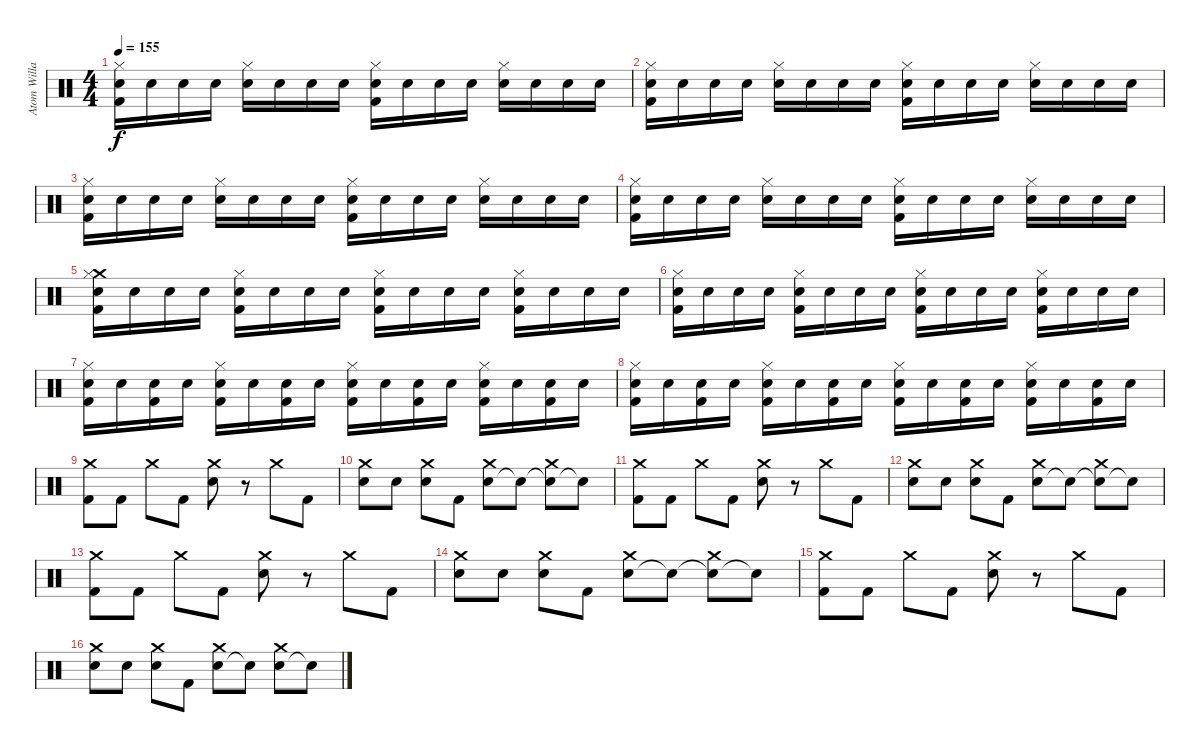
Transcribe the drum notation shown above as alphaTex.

\track ("Atom Willard Drums" "Atom Willa") {instrument percussion}
\staff {score}
\articulation defaults
\ts (4 4)
\tempo 155
\clef neutral
\ks c
("Electric Snare (hit)" "Kick (hit) 2" "Hi-Hat (closed)").16{dy f} "Electric Snare (hit)".16 "Electric Snare (hit)".16 "Electric Snare (hit)".16 ("Electric Snare (hit)" "Hi-Hat (closed)").16 "Electric Snare (hit)".16 "Electric Snare (hit)".16 "Electric Snare (hit)".16 ("Electric Snare (hit)" "Kick (hit) 2" "Hi-Hat (closed)").16 "Electric Snare (hit)".16 "Electric Snare (hit)".16 "Electric Snare (hit)".16 ("Electric Snare (hit)" "Hi-Hat (closed)").16 "Electric Snare (hit)".16 "Electric Snare (hit)".16 "Electric Snare (hit)".16 |
("Electric Snare (hit)" "Kick (hit) 2" "Hi-Hat (closed)").16 "Electric Snare (hit)".16 "Electric Snare (hit)".16 "Electric Snare (hit)".16 ("Electric Snare (hit)" "Hi-Hat (closed)").16 "Electric Snare (hit)".16 "Electric Snare (hit)".16 "Electric Snare (hit)".16 ("Electric Snare (hit)" "Kick (hit) 2" "Hi-Hat (closed)").16 "Electric Snare (hit)".16 "Electric Snare (hit)".16 "Electric Snare (hit)".16 ("Electric Snare (hit)" "Hi-Hat (closed)").16 "Electric Snare (hit)".16 "Electric Snare (hit)".16 "Electric Snare (hit)".16 |
("Electric Snare (hit)" "Kick (hit) 2" "Hi-Hat (closed)").16 "Electric Snare (hit)".16 "Electric Snare (hit)".16 "Electric Snare (hit)".16 ("Electric Snare (hit)" "Hi-Hat (closed)").16 "Electric Snare (hit)".16 "Electric Snare (hit)".16 "Electric Snare (hit)".16 ("Electric Snare (hit)" "Kick (hit) 2" "Hi-Hat (closed)").16 "Electric Snare (hit)".16 "Electric Snare (hit)".16 "Electric Snare (hit)".16 ("Electric Snare (hit)" "Hi-Hat (closed)").16 "Electric Snare (hit)".16 "Electric Snare (hit)".16 "Electric Snare (hit)".16 |
("Electric Snare (hit)" "Kick (hit) 2" "Hi-Hat (closed)").16 "Electric Snare (hit)".16 "Electric Snare (hit)".16 "Electric Snare (hit)".16 ("Electric Snare (hit)" "Hi-Hat (closed)").16 "Electric Snare (hit)".16 "Electric Snare (hit)".16 "Electric Snare (hit)".16 ("Electric Snare (hit)" "Kick (hit) 2" "Hi-Hat (closed)").16 "Electric Snare (hit)".16 "Electric Snare (hit)".16 "Electric Snare (hit)".16 ("Electric Snare (hit)" "Hi-Hat (closed)").16 "Electric Snare (hit)".16 "Electric Snare (hit)".16 "Electric Snare (hit)".16 |
("Electric Snare (hit)" "Kick (hit) 2" "Crash medium (hit)" "Hi-Hat (closed)").16 "Electric Snare (hit)".16 "Electric Snare (hit)".16 "Electric Snare (hit)".16 ("Electric Snare (hit)" "Kick (hit) 2" "Hi-Hat (closed)").16 "Electric Snare (hit)".16 "Electric Snare (hit)".16 "Electric Snare (hit)".16 ("Electric Snare (hit)" "Kick (hit) 2" "Hi-Hat (closed)").16 "Electric Snare (hit)".16 "Electric Snare (hit)".16 "Electric Snare (hit)".16 ("Electric Snare (hit)" "Kick (hit) 2" "Hi-Hat (closed)").16 "Electric Snare (hit)".16 "Electric Snare (hit)".16 "Electric Snare (hit)".16 |
("Electric Snare (hit)" "Kick (hit) 2" "Hi-Hat (closed)").16 "Electric Snare (hit)".16 "Electric Snare (hit)".16 "Electric Snare (hit)".16 ("Electric Snare (hit)" "Kick (hit) 2" "Hi-Hat (closed)").16 "Electric Snare (hit)".16 "Electric Snare (hit)".16 "Electric Snare (hit)".16 ("Electric Snare (hit)" "Kick (hit) 2" "Hi-Hat (closed)").16 "Electric Snare (hit)".16 "Electric Snare (hit)".16 "Electric Snare (hit)".16 ("Electric Snare (hit)" "Kick (hit) 2" "Hi-Hat (closed)").16 "Electric Snare (hit)".16 "Electric Snare (hit)".16 "Electric Snare (hit)".16 |
("Electric Snare (hit)" "Kick (hit) 2" "Hi-Hat (closed)").16 "Electric Snare (hit)".16 ("Electric Snare (hit)" "Kick (hit) 2").16 "Electric Snare (hit)".16 ("Electric Snare (hit)" "Kick (hit) 2" "Hi-Hat (closed)").16 "Electric Snare (hit)".16 ("Electric Snare (hit)" "Kick (hit) 2").16 "Electric Snare (hit)".16 ("Electric Snare (hit)" "Kick (hit) 2" "Hi-Hat (closed)").16 "Electric Snare (hit)".16 ("Electric Snare (hit)" "Kick (hit) 2").16 "Electric Snare (hit)".16 ("Electric Snare (hit)" "Kick (hit) 2" "Hi-Hat (closed)").16 "Electric Snare (hit)".16 ("Electric Snare (hit)" "Kick (hit) 2").16 "Electric Snare (hit)".16 |
("Electric Snare (hit)" "Kick (hit) 2" "Hi-Hat (closed)").16 "Electric Snare (hit)".16 ("Electric Snare (hit)" "Kick (hit) 2").16 "Electric Snare (hit)".16 ("Electric Snare (hit)" "Kick (hit) 2" "Hi-Hat (closed)").16 "Electric Snare (hit)".16 ("Electric Snare (hit)" "Kick (hit) 2").16 "Electric Snare (hit)".16 ("Electric Snare (hit)" "Kick (hit) 2" "Hi-Hat (closed)").16 "Electric Snare (hit)".16 ("Electric Snare (hit)" "Kick (hit) 2").16 "Electric Snare (hit)".16 ("Electric Snare (hit)" "Kick (hit) 2" "Hi-Hat (closed)").16 "Electric Snare (hit)".16 ("Electric Snare (hit)" "Kick (hit) 2").16 "Electric Snare (hit)".16 |
("Kick (hit) 2" "Crash medium (hit)").8 "Kick (hit) 2".8 "Crash medium (hit)".8 "Kick (hit) 2".8 ("Electric Snare (hit)" "Crash medium (hit)").8 r.8 "Crash medium (hit)".8 "Kick (hit) 2".8 |
("Snare (hit)" "Crash medium (hit)").8 "Electric Snare (hit)".8 ("Snare (hit)" "Crash medium (hit)").8 "Kick (hit) 2".8 ("Electric Snare (hit)" "Crash medium (hit)").8 "Snare (hit)"{t}.8 ("Snare (hit)"{t} "Crash medium (hit)").8 "Snare (hit)"{t}.8 |
("Kick (hit) 2" "Crash medium (hit)").8 "Kick (hit) 2".8 "Crash medium (hit)".8 "Kick (hit) 2".8 ("Electric Snare (hit)" "Crash medium (hit)").8 r.8 "Crash medium (hit)".8 "Kick (hit) 2".8 |
("Snare (hit)" "Crash medium (hit)").8 "Electric Snare (hit)".8 ("Snare (hit)" "Crash medium (hit)").8 "Kick (hit) 2".8 ("Electric Snare (hit)" "Crash medium (hit)").8 "Snare (hit)"{t}.8 ("Snare (hit)"{t} "Crash medium (hit)").8 "Snare (hit)"{t}.8 |
("Kick (hit) 2" "Crash medium (hit)").8 "Kick (hit) 2".8 "Crash medium (hit)".8 "Kick (hit) 2".8 ("Electric Snare (hit)" "Crash medium (hit)").8 r.8 "Crash medium (hit)".8 "Kick (hit) 2".8 |
("Snare (hit)" "Crash medium (hit)").8 "Electric Snare (hit)".8 ("Snare (hit)" "Crash medium (hit)").8 "Kick (hit) 2".8 ("Electric Snare (hit)" "Crash medium (hit)").8 "Snare (hit)"{t}.8 ("Snare (hit)"{t} "Crash medium (hit)").8 "Snare (hit)"{t}.8 |
("Kick (hit) 2" "Crash medium (hit)").8 "Kick (hit) 2".8 "Crash medium (hit)".8 "Kick (hit) 2".8 ("Electric Snare (hit)" "Crash medium (hit)").8 r.8 "Crash medium (hit)".8 "Kick (hit) 2".8 |
("Snare (hit)" "Crash medium (hit)").8 "Electric Snare (hit)".8 ("Snare (hit)" "Crash medium (hit)").8 "Kick (hit) 2".8 ("Electric Snare (hit)" "Crash medium (hit)").8 "Snare (hit)"{t}.8 ("Electric Snare (hit)" "Crash medium (hit)").8 "Snare (hit)"{t}.8
